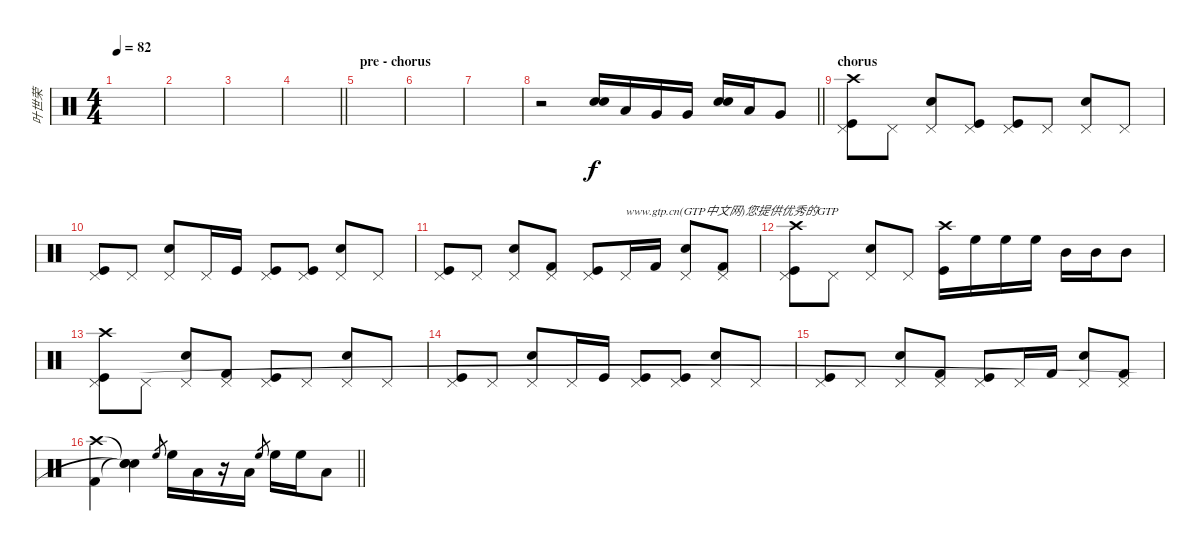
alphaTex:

\track ("叶世荣" "叶世荣") {instrument percussion}
\staff {score}
\articulation defaults
\ts (4 4)
\tempo 82
\clef neutral
\ks c
|
|
|
\barLineRight lightlight
|
\section ("" "pre - chorus")
|
|
|
\barLineRight lightlight
r.2 ("Electric Snare (hit)" "Electric Snare (hit)").16 "Low Tom (hit)".16 "Very Low Tom (hit)".16 "Very Low Tom (hit)".16 ("Electric Snare (hit)" "Electric Snare (hit)").16 "Low Tom (hit)".16 "Very Low Tom (hit)".8 |
\section ("" "chorus")
("Crash high (hit)" "Pedal Hi-Hat (hit)" "Kick (hit)").8 "Pedal Hi-Hat (hit)".8 ("Electric Snare (hit)" "Pedal Hi-Hat (hit)").8 ("Kick (hit)" "Pedal Hi-Hat (hit)").8 ("Pedal Hi-Hat (hit)" "Kick (hit)").8 "Pedal Hi-Hat (hit)".8 ("Electric Snare (hit)" "Pedal Hi-Hat (hit)").8 "Pedal Hi-Hat (hit)".8 |
("Pedal Hi-Hat (hit)" "Kick (hit)").8 "Pedal Hi-Hat (hit)".8 ("Electric Snare (hit)" "Pedal Hi-Hat (hit)").8 "Pedal Hi-Hat (hit)".16 "Kick (hit)".16 ("Pedal Hi-Hat (hit)" "Kick (hit)").8 ("Pedal Hi-Hat (hit)" "Kick (hit)").8 ("Electric Snare (hit)" "Pedal Hi-Hat (hit)").8 "Pedal Hi-Hat (hit)".8 |
("Pedal Hi-Hat (hit)" "Kick (hit)").8 "Pedal Hi-Hat (hit)".8 ("Electric Snare (hit)" "Pedal Hi-Hat (hit)").8 ("Kick (hit) 2" "Pedal Hi-Hat (hit)").8 ("Pedal Hi-Hat (hit)" "Kick (hit)").8 "Pedal Hi-Hat (hit)".16{txt "www.gtp.cn(GTP中文网)您提供优秀的GTP"} "Kick (hit) 2".16 ("Pedal Hi-Hat (hit)" "Electric Snare (hit)").8 ("Pedal Hi-Hat (hit)" "Kick (hit) 2").8 |
("Crash high (hit)" "Pedal Hi-Hat (hit)" "Kick (hit)").8 "Pedal Hi-Hat (hit)".8 ("Electric Snare (hit)" "Pedal Hi-Hat (hit)").8 "Pedal Hi-Hat (hit)".8 ("Crash high (hit)" "Kick (hit)").16 "High Floor Tom (hit)".16 "High Floor Tom (hit)".16 "High Floor Tom (hit)".16 "Mid Tom (hit)".16 "Mid Tom (hit)".16 "Mid Tom (hit)".8 |
("Crash high (hit)" "Pedal Hi-Hat (hit)" "Kick (hit)").8 "Pedal Hi-Hat (hit)".8 ("Electric Snare (hit)" "Pedal Hi-Hat (hit)").8 ("Pedal Hi-Hat (hit)" "Kick (hit) 2").8 ("Pedal Hi-Hat (hit)" "Kick (hit)").8 "Pedal Hi-Hat (hit)".8 ("Electric Snare (hit)" "Pedal Hi-Hat (hit)").8 "Pedal Hi-Hat (hit)".8 |
("Pedal Hi-Hat (hit)" "Kick (hit)").8 "Pedal Hi-Hat (hit)".8 ("Electric Snare (hit)" "Pedal Hi-Hat (hit)").8 "Pedal Hi-Hat (hit)".16 "Kick (hit)".16 ("Pedal Hi-Hat (hit)" "Kick (hit)").8 ("Pedal Hi-Hat (hit)" "Kick (hit)").8 ("Electric Snare (hit)" "Pedal Hi-Hat (hit)").8 "Pedal Hi-Hat (hit)".8 |
("Pedal Hi-Hat (hit)" "Kick (hit)").8 "Pedal Hi-Hat (hit)".8 ("Electric Snare (hit)" "Pedal Hi-Hat (hit)").8 ("Kick (hit) 2" "Pedal Hi-Hat (hit)").8 ("Pedal Hi-Hat (hit)" "Kick (hit)").8 "Pedal Hi-Hat (hit)".16 "Kick (hit) 2".16 ("Pedal Hi-Hat (hit)" "Electric Snare (hit)").8 ("Pedal Hi-Hat (hit)" "Kick (hit) 2").8 |
\barLineRight lightlight
("Kick (hit) 2" "Crash high (hit)").4 ("Snare (hit)"{t} "Snare (hit)"{t} "Snare (hit)"{t}).4 "High Floor Tom (hit)".8{gr} "High Floor Tom (hit)".16 "Low Tom (hit)".16 r.16 "Low Tom (hit)".16 "High Floor Tom (hit)".8{gr} "High Floor Tom (hit)".16 "High Floor Tom (hit)".16 "Low Tom (hit)".8
